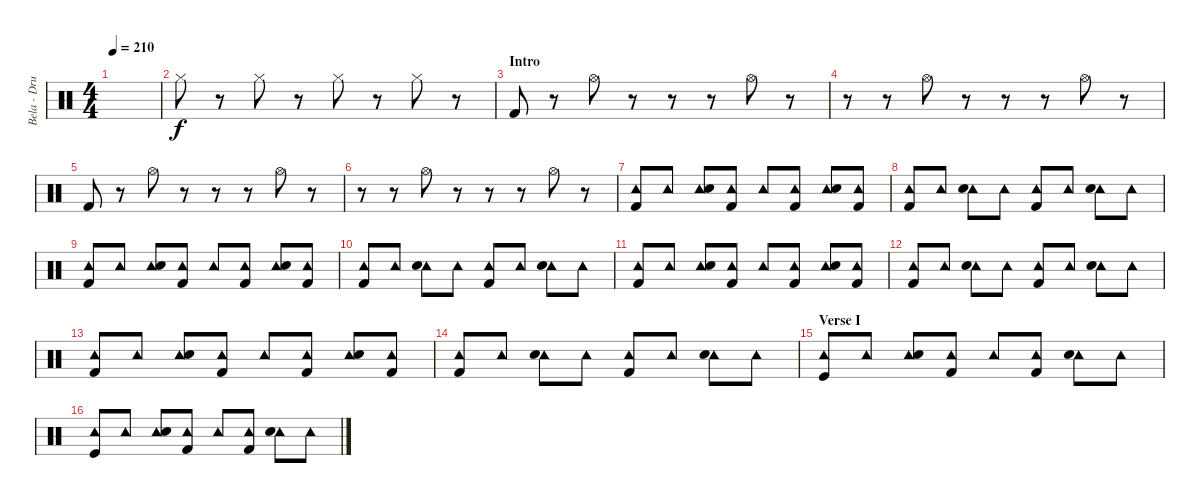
\track ("Bela - Drums" "Bela - Dru") {instrument percussion}
\staff {score}
\articulation defaults
\ts (4 4)
\tempo 210
\clef neutral
\ks c
|
"Hi-Hat (closed)".8 r.8 "Hi-Hat (closed)".8 r.8 "Hi-Hat (closed)".8 r.8 "Hi-Hat (closed)".8 r.8 |
\section ("" "Intro")
"Kick (hit) 2".8 r.8 "Hi-Hat (open)".8 r.8 r.8 r.8 "Hi-Hat (open)".8 r.8 |
r.8 r.8 "Hi-Hat (open)".8 r.8 r.8 r.8 "Hi-Hat (open)".8 r.8 |
"Kick (hit) 2".8 r.8 "Hi-Hat (open)".8 r.8 r.8 r.8 "Hi-Hat (open)".8 r.8 |
r.8 r.8 "Hi-Hat (open)".8 r.8 r.8 r.8 "Hi-Hat (open)".8 r.8 |
("Tambourine (hit)" "Kick (hit) 2").8 "Tambourine (hit)".8 ("Tambourine (hit)" "Electric Snare (hit)").8 ("Tambourine (hit)" "Kick (hit) 2").8 "Tambourine (hit)".8 ("Tambourine (hit)" "Kick (hit) 2").8 ("Tambourine (hit)" "Electric Snare (hit)").8 ("Tambourine (hit)" "Kick (hit) 2").8 |
("Tambourine (hit)" "Kick (hit) 2").8 "Tambourine (hit)".8 ("Tambourine (hit)" "Electric Snare (hit)").8 "Tambourine (hit)".8 ("Tambourine (hit)" "Kick (hit) 2").8 "Tambourine (hit)".8 ("Tambourine (hit)" "Electric Snare (hit)").8 "Tambourine (hit)".8 |
("Tambourine (hit)" "Kick (hit) 2").8 "Tambourine (hit)".8 ("Tambourine (hit)" "Electric Snare (hit)").8 ("Tambourine (hit)" "Kick (hit) 2").8 "Tambourine (hit)".8 ("Tambourine (hit)" "Kick (hit) 2").8 ("Tambourine (hit)" "Electric Snare (hit)").8 ("Tambourine (hit)" "Kick (hit) 2").8 |
("Tambourine (hit)" "Kick (hit) 2").8 "Tambourine (hit)".8 ("Tambourine (hit)" "Electric Snare (hit)").8 "Tambourine (hit)".8 ("Tambourine (hit)" "Kick (hit) 2").8 "Tambourine (hit)".8 ("Tambourine (hit)" "Electric Snare (hit)").8 "Tambourine (hit)".8 |
("Tambourine (hit)" "Kick (hit) 2").8 "Tambourine (hit)".8 ("Tambourine (hit)" "Electric Snare (hit)").8 ("Tambourine (hit)" "Kick (hit) 2").8 "Tambourine (hit)".8 ("Tambourine (hit)" "Kick (hit) 2").8 ("Tambourine (hit)" "Electric Snare (hit)").8 ("Tambourine (hit)" "Kick (hit) 2").8 |
("Tambourine (hit)" "Kick (hit) 2").8 "Tambourine (hit)".8 ("Tambourine (hit)" "Electric Snare (hit)").8 "Tambourine (hit)".8 ("Tambourine (hit)" "Kick (hit) 2").8 "Tambourine (hit)".8 ("Tambourine (hit)" "Electric Snare (hit)").8 "Tambourine (hit)".8 |
("Tambourine (hit)" "Kick (hit) 2").8 "Tambourine (hit)".8 ("Tambourine (hit)" "Electric Snare (hit)").8 ("Tambourine (hit)" "Kick (hit) 2").8 "Tambourine (hit)".8 ("Tambourine (hit)" "Kick (hit) 2").8 ("Tambourine (hit)" "Electric Snare (hit)").8 ("Tambourine (hit)" "Kick (hit) 2").8 |
("Tambourine (hit)" "Kick (hit) 2").8 "Tambourine (hit)".8 ("Tambourine (hit)" "Electric Snare (hit)").8 "Tambourine (hit)".8 ("Tambourine (hit)" "Kick (hit) 2").8 "Tambourine (hit)".8 ("Tambourine (hit)" "Electric Snare (hit)").8 "Tambourine (hit)".8 |
\section ("" "Verse I")
("Tambourine (hit)" "Kick (hit)").8 "Tambourine (hit)".8 ("Tambourine (hit)" "Electric Snare (hit)").8 ("Tambourine (hit)" "Kick (hit) 2").8 "Tambourine (hit)".8 ("Tambourine (hit)" "Kick (hit) 2").8 ("Tambourine (hit)" "Electric Snare (hit)").8 "Tambourine (hit)".8 |
("Tambourine (hit)" "Kick (hit)").8 "Tambourine (hit)".8 ("Tambourine (hit)" "Electric Snare (hit)").8 ("Tambourine (hit)" "Kick (hit) 2").8 "Tambourine (hit)".8 ("Tambourine (hit)" "Kick (hit) 2").8 ("Tambourine (hit)" "Electric Snare (hit)").8 "Tambourine (hit)".8
